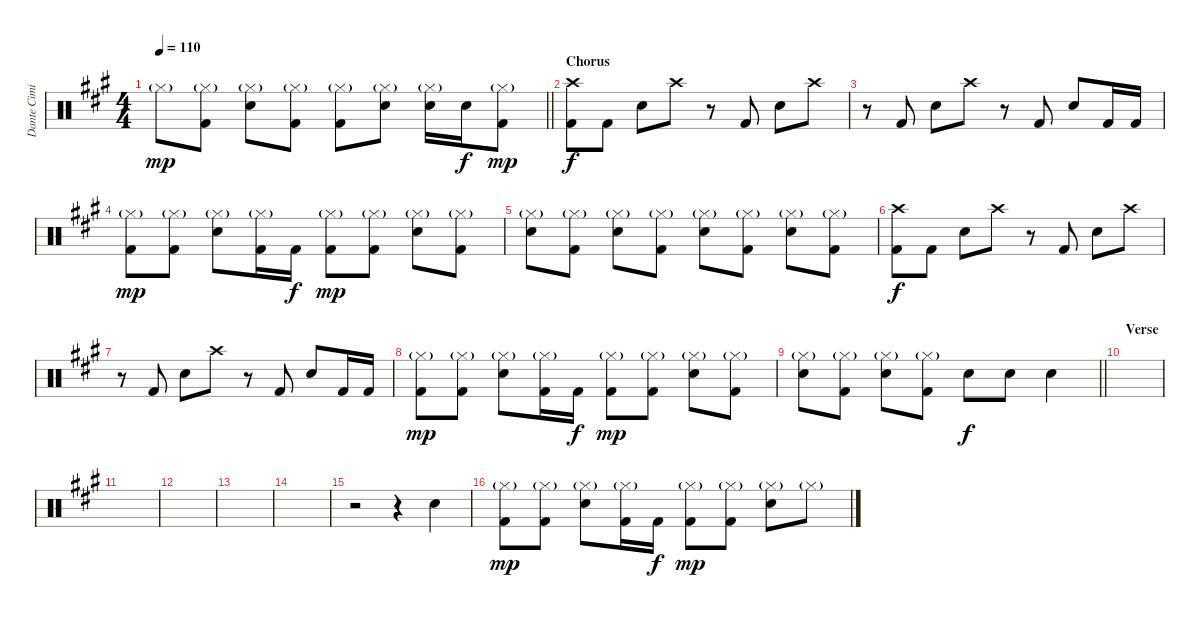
\track ("Dante Cimino" "Dante Cimi") {instrument percussion}
\staff {score}
\articulation defaults
\ts (4 4)
\tempo 110
\clef neutral
\barLineRight lightlight
\ks a "Hi-Hat (closed)"{g}.8{dy mp}
("Hi-Hat (closed)"{g} "Kick (hit) 2").8 ("Hi-Hat (closed)"{g} "Electric Snare (hit)").8 ("Hi-Hat (closed)"{g} "Kick (hit) 2").8 ("Hi-Hat (closed)"{g} "Kick (hit) 2").8 ("Hi-Hat (closed)"{g} "Electric Snare (hit)").8 ("Hi-Hat (closed)"{g} "Electric Snare (hit)").16 "Electric Snare (hit)".16{dy f} ("Hi-Hat (closed)"{g} "Kick (hit) 2").8{dy mp} |
\section ("" "Chorus")
("Crash high (hit)" "Kick (hit) 2").8{dy f} "Kick (hit) 2".8 "Electric Snare (hit)".8 "Crash high (hit)".8 r.8 "Kick (hit) 2".8 "Electric Snare (hit)".8 "Crash high (hit)".8 |
r.8 "Kick (hit) 2".8 "Electric Snare (hit)".8 "Crash high (hit)".8 r.8 "Kick (hit) 2".8 "Electric Snare (hit)".8 "Kick (hit) 2".16 "Kick (hit) 2".16 |
("Hi-Hat (closed)"{g} "Kick (hit) 2").8{dy mp} ("Hi-Hat (closed)"{g} "Kick (hit) 2").8 ("Hi-Hat (closed)"{g} "Electric Snare (hit)").8 ("Hi-Hat (closed)"{g} "Kick (hit) 2").16 "Kick (hit) 2".16{dy f} ("Hi-Hat (closed)"{g} "Kick (hit) 2").8{dy mp} ("Hi-Hat (closed)"{g} "Kick (hit) 2").8 ("Hi-Hat (closed)"{g} "Electric Snare (hit)").8 ("Hi-Hat (closed)"{g} "Kick (hit) 2").8 |
("Hi-Hat (closed)"{g} "Electric Snare (hit)").8 ("Hi-Hat (closed)"{g} "Kick (hit) 2").8 ("Hi-Hat (closed)"{g} "Electric Snare (hit)").8 ("Hi-Hat (closed)"{g} "Kick (hit) 2").8 ("Hi-Hat (closed)"{g} "Electric Snare (hit)").8 ("Hi-Hat (closed)"{g} "Kick (hit) 2").8 ("Hi-Hat (closed)"{g} "Electric Snare (hit)").8 ("Hi-Hat (closed)"{g} "Kick (hit) 2").8 |
("Crash high (hit)" "Kick (hit) 2").8{dy f} "Kick (hit) 2".8 "Electric Snare (hit)".8 "Crash high (hit)".8 r.8 "Kick (hit) 2".8 "Electric Snare (hit)".8 "Crash high (hit)".8 |
r.8 "Kick (hit) 2".8 "Electric Snare (hit)".8 "Crash high (hit)".8 r.8 "Kick (hit) 2".8 "Electric Snare (hit)".8 "Kick (hit) 2".16 "Kick (hit) 2".16 |
("Hi-Hat (closed)"{g} "Kick (hit) 2").8{dy mp} ("Hi-Hat (closed)"{g} "Kick (hit) 2").8 ("Hi-Hat (closed)"{g} "Electric Snare (hit)").8 ("Hi-Hat (closed)"{g} "Kick (hit) 2").16 "Kick (hit) 2".16{dy f} ("Hi-Hat (closed)"{g} "Kick (hit) 2").8{dy mp} ("Hi-Hat (closed)"{g} "Kick (hit) 2").8 ("Hi-Hat (closed)"{g} "Electric Snare (hit)").8 ("Hi-Hat (closed)"{g} "Kick (hit) 2").8 |
\barLineRight lightlight
("Hi-Hat (closed)"{g} "Electric Snare (hit)").8 ("Hi-Hat (closed)"{g} "Kick (hit) 2").8 ("Hi-Hat (closed)"{g} "Electric Snare (hit)").8 ("Hi-Hat (closed)"{g} "Kick (hit) 2").8 "Electric Snare (hit)".8{dy f} "Electric Snare (hit)".8 "Electric Snare (hit)".4 |
\section ("" "Verse")
|
|
|
|
|
r.2 r.4 "Electric Snare (hit)".4 |
("Hi-Hat (closed)"{g} "Kick (hit) 2").8{dy mp} ("Hi-Hat (closed)"{g} "Kick (hit) 2").8 ("Hi-Hat (closed)"{g} "Electric Snare (hit)").8 ("Hi-Hat (closed)"{g} "Kick (hit) 2").16 "Kick (hit) 2".16{dy f} ("Hi-Hat (closed)"{g} "Kick (hit) 2").8{dy mp} ("Hi-Hat (closed)"{g} "Kick (hit) 2").8 ("Hi-Hat (closed)"{g} "Electric Snare (hit)").8 "Hi-Hat (closed)"{g}.8
